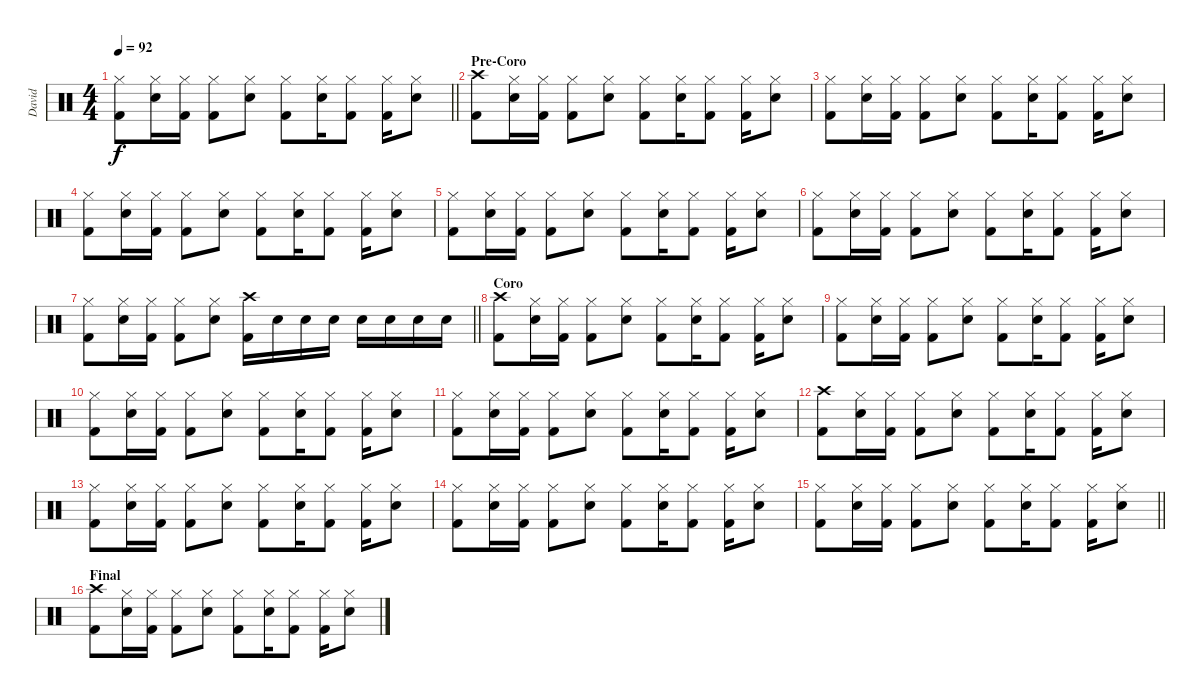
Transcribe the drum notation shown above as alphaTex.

\track ("David" "David") {instrument percussion}
\staff {score}
\articulation defaults
\ts (4 4)
\tempo 92
\clef neutral
\barLineRight lightlight
\ks c
("Hi-Hat (closed)" "Kick (hit) 2").8{dy f} ("Hi-Hat (closed)" "Snare (hit) 2").16 ("Hi-Hat (closed)" "Kick (hit) 2").16 ("Hi-Hat (closed)" "Kick (hit) 2").8 ("Hi-Hat (closed)" "Snare (hit) 2").8 ("Hi-Hat (closed)" "Kick (hit) 2").8 ("Hi-Hat (closed)" "Snare (hit) 2").16 ("Hi-Hat (closed)" "Kick (hit) 2").8 ("Hi-Hat (closed)" "Kick (hit) 2").16 ("Hi-Hat (closed)" "Snare (hit) 2").8 |
\section ("" "Pre-Coro")
("Crash high (hit)" "Kick (hit) 2").8 ("Hi-Hat (closed)" "Snare (hit) 2").16 ("Hi-Hat (closed)" "Kick (hit) 2").16 ("Hi-Hat (closed)" "Kick (hit) 2").8 ("Hi-Hat (closed)" "Snare (hit) 2").8 ("Hi-Hat (closed)" "Kick (hit) 2").8 ("Hi-Hat (closed)" "Snare (hit) 2").16 ("Hi-Hat (closed)" "Kick (hit) 2").8 ("Hi-Hat (closed)" "Kick (hit) 2").16 ("Hi-Hat (closed)" "Snare (hit) 2").8 |
("Hi-Hat (closed)" "Kick (hit) 2").8 ("Hi-Hat (closed)" "Snare (hit) 2").16 ("Hi-Hat (closed)" "Kick (hit) 2").16 ("Hi-Hat (closed)" "Kick (hit) 2").8 ("Hi-Hat (closed)" "Snare (hit) 2").8 ("Hi-Hat (closed)" "Kick (hit) 2").8 ("Hi-Hat (closed)" "Snare (hit) 2").16 ("Hi-Hat (closed)" "Kick (hit) 2").8 ("Hi-Hat (closed)" "Kick (hit) 2").16 ("Hi-Hat (closed)" "Snare (hit) 2").8 |
("Hi-Hat (closed)" "Kick (hit) 2").8 ("Hi-Hat (closed)" "Snare (hit) 2").16 ("Hi-Hat (closed)" "Kick (hit) 2").16 ("Hi-Hat (closed)" "Kick (hit) 2").8 ("Hi-Hat (closed)" "Snare (hit) 2").8 ("Hi-Hat (closed)" "Kick (hit) 2").8 ("Hi-Hat (closed)" "Snare (hit) 2").16 ("Hi-Hat (closed)" "Kick (hit) 2").8 ("Hi-Hat (closed)" "Kick (hit) 2").16 ("Hi-Hat (closed)" "Snare (hit) 2").8 |
("Hi-Hat (closed)" "Kick (hit) 2").8 ("Hi-Hat (closed)" "Snare (hit) 2").16 ("Hi-Hat (closed)" "Kick (hit) 2").16 ("Hi-Hat (closed)" "Kick (hit) 2").8 ("Hi-Hat (closed)" "Snare (hit) 2").8 ("Hi-Hat (closed)" "Kick (hit) 2").8 ("Hi-Hat (closed)" "Snare (hit) 2").16 ("Hi-Hat (closed)" "Kick (hit) 2").8 ("Hi-Hat (closed)" "Kick (hit) 2").16 ("Hi-Hat (closed)" "Snare (hit) 2").8 |
("Hi-Hat (closed)" "Kick (hit) 2").8 ("Hi-Hat (closed)" "Snare (hit) 2").16 ("Hi-Hat (closed)" "Kick (hit) 2").16 ("Hi-Hat (closed)" "Kick (hit) 2").8 ("Hi-Hat (closed)" "Snare (hit) 2").8 ("Hi-Hat (closed)" "Kick (hit) 2").8 ("Hi-Hat (closed)" "Snare (hit) 2").16 ("Hi-Hat (closed)" "Kick (hit) 2").8 ("Hi-Hat (closed)" "Kick (hit) 2").16 ("Hi-Hat (closed)" "Snare (hit) 2").8 |
\barLineRight lightlight
("Hi-Hat (closed)" "Kick (hit) 2").8 ("Hi-Hat (closed)" "Snare (hit) 2").16 ("Hi-Hat (closed)" "Kick (hit) 2").16 ("Hi-Hat (closed)" "Kick (hit) 2").8 ("Hi-Hat (closed)" "Snare (hit) 2").8 ("Crash high (hit)" "Kick (hit) 2").16 "Snare (hit) 2".16 "Snare (hit) 2".16 "Snare (hit) 2".16 "Snare (hit) 2".16 "Snare (hit) 2".16 "Snare (hit) 2".16 "Snare (hit) 2".16 |
\section ("" "Coro")
("Crash high (hit)" "Kick (hit) 2").8 ("Hi-Hat (closed)" "Snare (hit) 2").16 ("Hi-Hat (closed)" "Kick (hit) 2").16 ("Hi-Hat (closed)" "Kick (hit) 2").8 ("Hi-Hat (closed)" "Snare (hit) 2").8 ("Hi-Hat (closed)" "Kick (hit) 2").8 ("Hi-Hat (closed)" "Snare (hit) 2").16 ("Hi-Hat (closed)" "Kick (hit) 2").8 ("Hi-Hat (closed)" "Kick (hit) 2").16 ("Hi-Hat (closed)" "Snare (hit) 2").8 |
("Hi-Hat (closed)" "Kick (hit) 2").8 ("Hi-Hat (closed)" "Snare (hit) 2").16 ("Hi-Hat (closed)" "Kick (hit) 2").16 ("Hi-Hat (closed)" "Kick (hit) 2").8 ("Hi-Hat (closed)" "Snare (hit) 2").8 ("Hi-Hat (closed)" "Kick (hit) 2").8 ("Hi-Hat (closed)" "Snare (hit) 2").16 ("Hi-Hat (closed)" "Kick (hit) 2").8 ("Hi-Hat (closed)" "Kick (hit) 2").16 ("Hi-Hat (closed)" "Snare (hit) 2").8 |
("Hi-Hat (closed)" "Kick (hit) 2").8 ("Hi-Hat (closed)" "Snare (hit) 2").16 ("Hi-Hat (closed)" "Kick (hit) 2").16 ("Hi-Hat (closed)" "Kick (hit) 2").8 ("Hi-Hat (closed)" "Snare (hit) 2").8 ("Hi-Hat (closed)" "Kick (hit) 2").8 ("Hi-Hat (closed)" "Snare (hit) 2").16 ("Hi-Hat (closed)" "Kick (hit) 2").8 ("Hi-Hat (closed)" "Kick (hit) 2").16 ("Hi-Hat (closed)" "Snare (hit) 2").8 |
("Hi-Hat (closed)" "Kick (hit) 2").8 ("Hi-Hat (closed)" "Snare (hit) 2").16 ("Hi-Hat (closed)" "Kick (hit) 2").16 ("Hi-Hat (closed)" "Kick (hit) 2").8 ("Hi-Hat (closed)" "Snare (hit) 2").8 ("Hi-Hat (closed)" "Kick (hit) 2").8 ("Hi-Hat (closed)" "Snare (hit) 2").16 ("Hi-Hat (closed)" "Kick (hit) 2").8 ("Hi-Hat (closed)" "Kick (hit) 2").16 ("Hi-Hat (closed)" "Snare (hit) 2").8 |
("Crash high (hit)" "Kick (hit) 2").8 ("Hi-Hat (closed)" "Snare (hit) 2").16 ("Hi-Hat (closed)" "Kick (hit) 2").16 ("Hi-Hat (closed)" "Kick (hit) 2").8 ("Hi-Hat (closed)" "Snare (hit) 2").8 ("Hi-Hat (closed)" "Kick (hit) 2").8 ("Hi-Hat (closed)" "Snare (hit) 2").16 ("Hi-Hat (closed)" "Kick (hit) 2").8 ("Hi-Hat (closed)" "Kick (hit) 2").16 ("Hi-Hat (closed)" "Snare (hit) 2").8 |
("Hi-Hat (closed)" "Kick (hit) 2").8 ("Hi-Hat (closed)" "Snare (hit) 2").16 ("Hi-Hat (closed)" "Kick (hit) 2").16 ("Hi-Hat (closed)" "Kick (hit) 2").8 ("Hi-Hat (closed)" "Snare (hit) 2").8 ("Hi-Hat (closed)" "Kick (hit) 2").8 ("Hi-Hat (closed)" "Snare (hit) 2").16 ("Hi-Hat (closed)" "Kick (hit) 2").8 ("Hi-Hat (closed)" "Kick (hit) 2").16 ("Hi-Hat (closed)" "Snare (hit) 2").8 |
("Hi-Hat (closed)" "Kick (hit) 2").8 ("Hi-Hat (closed)" "Snare (hit) 2").16 ("Hi-Hat (closed)" "Kick (hit) 2").16 ("Hi-Hat (closed)" "Kick (hit) 2").8 ("Hi-Hat (closed)" "Snare (hit) 2").8 ("Hi-Hat (closed)" "Kick (hit) 2").8 ("Hi-Hat (closed)" "Snare (hit) 2").16 ("Hi-Hat (closed)" "Kick (hit) 2").8 ("Hi-Hat (closed)" "Kick (hit) 2").16 ("Hi-Hat (closed)" "Snare (hit) 2").8 |
\barLineRight lightlight
("Hi-Hat (closed)" "Kick (hit) 2").8 ("Hi-Hat (closed)" "Snare (hit) 2").16 ("Hi-Hat (closed)" "Kick (hit) 2").16 ("Hi-Hat (closed)" "Kick (hit) 2").8 ("Hi-Hat (closed)" "Snare (hit) 2").8 ("Hi-Hat (closed)" "Kick (hit) 2").8 ("Hi-Hat (closed)" "Snare (hit) 2").16 ("Hi-Hat (closed)" "Kick (hit) 2").8 ("Hi-Hat (closed)" "Kick (hit) 2").16 ("Hi-Hat (closed)" "Snare (hit) 2").8 |
\section ("" "Final")
("Crash high (hit)" "Kick (hit) 2").8 ("Hi-Hat (closed)" "Snare (hit) 2").16 ("Hi-Hat (closed)" "Kick (hit) 2").16 ("Hi-Hat (closed)" "Kick (hit) 2").8 ("Hi-Hat (closed)" "Snare (hit) 2").8 ("Hi-Hat (closed)" "Kick (hit) 2").8 ("Hi-Hat (closed)" "Snare (hit) 2").16 ("Hi-Hat (closed)" "Kick (hit) 2").8 ("Hi-Hat (closed)" "Kick (hit) 2").16 ("Hi-Hat (closed)" "Snare (hit) 2").8
